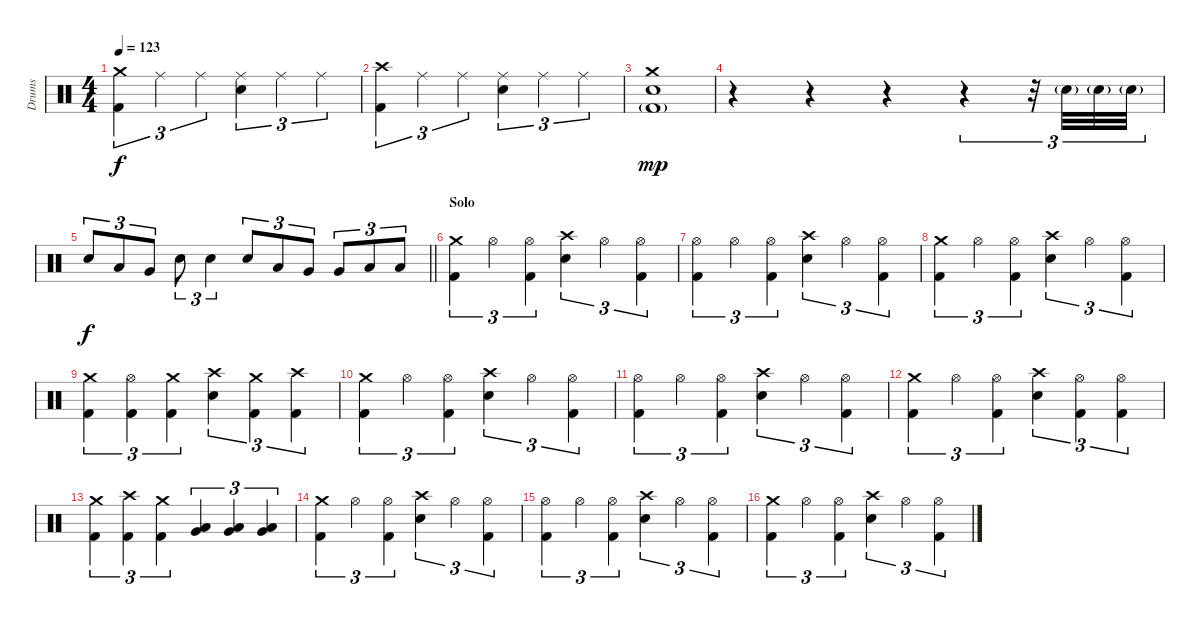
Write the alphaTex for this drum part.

\track ("Drums" "Drums") {instrument percussion}
\staff {score}
\articulation defaults
\ts (4 4)
\tempo 123
\clef neutral
\ks c
("Crash medium (hit)" "Kick (hit) 2").4{tu (3 2) dy f} "Ride (middle)".4{tu (3 2)} "Ride (middle)".4{tu (3 2)} ("Ride (middle)" "Electric Snare (hit)").4{tu (3 2)} "Ride (middle)".4{tu (3 2)} "Ride (middle)".4{tu (3 2)} |
("Crash high (hit)" "Kick (hit) 2").4{tu (3 2)} "Ride (middle)".4{tu (3 2)} "Ride (middle)".4{tu (3 2)} ("Ride (middle)" "Electric Snare (hit)").4{tu (3 2)} "Ride (middle)".4{tu (3 2)} "Ride (middle)".4{tu (3 2)} |
("Crash medium (hit)" "Electric Snare (hit)" "Kick (hit) 2"{g}).1{dy mp} |
r.4 r.4 r.4 r.4{tu (3 2)} r.32{tu (3 2)} "Electric Snare (hit)"{g}.32{tu (3 2)} "Electric Snare (hit)"{g}.32{tu (3 2)} "Electric Snare (hit)"{g}.32{tu (3 2)} |
\barLineRight lightlight "Electric Snare (hit)".8{tu (3 2) dy f} "Low Tom (hit)".8{tu (3 2)} "Very Low Tom (hit)".8{tu (3 2)} "Electric Snare (hit)".8{tu (3 2)} "Electric Snare (hit)".4{tu (3 2)} "Electric Snare (hit)".8{tu (3 2)} "Low Tom (hit)".8{tu (3 2)} "Very Low Tom (hit)".8{tu (3 2)} "Very Low Tom (hit)".8{tu (3 2)} "Low Floor Tom (hit)".8{tu (3 2)} "Low Floor Tom (hit)".8{tu (3 2)}
|
\section ("" "Solo")
("Crash medium (hit)" "Kick (hit) 2").4{tu (3 2)} "Hi-Hat (open)".4{tu (3 2)} ("Hi-Hat (open)" "Kick (hit) 2").4{tu (3 2)} ("Crash high (hit)" "Electric Snare (hit)").4{tu (3 2)} "Hi-Hat (open)".4{tu (3 2)} ("Hi-Hat (open)" "Kick (hit) 2").4{tu (3 2)} |
("Hi-Hat (open)" "Kick (hit) 2").4{tu (3 2)} "Hi-Hat (open)".4{tu (3 2)} ("Hi-Hat (open)" "Kick (hit) 2").4{tu (3 2)} ("Crash high (hit)" "Electric Snare (hit)").4{tu (3 2)} "Hi-Hat (open)".4{tu (3 2)} ("Hi-Hat (open)" "Kick (hit) 2").4{tu (3 2)} |
("Crash medium (hit)" "Kick (hit) 2").4{tu (3 2)} "Hi-Hat (open)".4{tu (3 2)} ("Hi-Hat (open)" "Kick (hit) 2").4{tu (3 2)} ("Crash high (hit)" "Electric Snare (hit)").4{tu (3 2)} "Hi-Hat (open)".4{tu (3 2)} ("Hi-Hat (open)" "Kick (hit) 2").4{tu (3 2)} |
("Crash medium (hit)" "Kick (hit) 2").4{tu (3 2)} ("Hi-Hat (open)" "Kick (hit) 2").4{tu (3 2)} ("Crash medium (hit)" "Kick (hit) 2").4{tu (3 2)} ("Crash high (hit)" "Electric Snare (hit)").4{tu (3 2)} ("Crash medium (hit)" "Kick (hit) 2").4{tu (3 2)} ("Crash high (hit)" "Kick (hit) 2").4{tu (3 2)} |
("Crash medium (hit)" "Kick (hit) 2").4{tu (3 2)} "Hi-Hat (open)".4{tu (3 2)} ("Hi-Hat (open)" "Kick (hit) 2").4{tu (3 2)} ("Crash high (hit)" "Electric Snare (hit)").4{tu (3 2)} "Hi-Hat (open)".4{tu (3 2)} ("Hi-Hat (open)" "Kick (hit) 2").4{tu (3 2)} |
("Hi-Hat (open)" "Kick (hit) 2").4{tu (3 2)} "Hi-Hat (open)".4{tu (3 2)} ("Hi-Hat (open)" "Kick (hit) 2").4{tu (3 2)} ("Crash high (hit)" "Electric Snare (hit)").4{tu (3 2)} "Hi-Hat (open)".4{tu (3 2)} ("Hi-Hat (open)" "Kick (hit) 2").4{tu (3 2)} |
("Crash medium (hit)" "Kick (hit) 2").4{tu (3 2)} "Hi-Hat (open)".4{tu (3 2)} ("Hi-Hat (open)" "Kick (hit) 2").4{tu (3 2)} ("Crash high (hit)" "Electric Snare (hit)").4{tu (3 2)} ("Hi-Hat (open)" "Kick (hit) 2").4{tu (3 2)} ("Hi-Hat (open)" "Kick (hit) 2").4{tu (3 2)} |
("Crash medium (hit)" "Kick (hit) 2").4{tu (3 2)} ("Crash high (hit)" "Kick (hit) 2").4{tu (3 2)} ("Crash medium (hit)" "Kick (hit) 2").4{tu (3 2)} ("Low Tom (hit)" "Very Low Tom (hit)").4{tu (3 2)} ("Low Tom (hit)" "Very Low Tom (hit)").4{tu (3 2)} ("Low Tom (hit)" "Very Low Tom (hit)").4{tu (3 2)} |
("Crash medium (hit)" "Kick (hit) 2").4{tu (3 2)} "Hi-Hat (open)".4{tu (3 2)} ("Hi-Hat (open)" "Kick (hit) 2").4{tu (3 2)} ("Crash high (hit)" "Electric Snare (hit)").4{tu (3 2)} "Hi-Hat (open)".4{tu (3 2)} ("Hi-Hat (open)" "Kick (hit) 2").4{tu (3 2)} |
("Hi-Hat (open)" "Kick (hit) 2").4{tu (3 2)} "Hi-Hat (open)".4{tu (3 2)} ("Hi-Hat (open)" "Kick (hit) 2").4{tu (3 2)} ("Crash high (hit)" "Electric Snare (hit)").4{tu (3 2)} "Hi-Hat (open)".4{tu (3 2)} ("Hi-Hat (open)" "Kick (hit) 2").4{tu (3 2)} |
("Crash medium (hit)" "Kick (hit) 2").4{tu (3 2)} "Hi-Hat (open)".4{tu (3 2)} ("Hi-Hat (open)" "Kick (hit) 2").4{tu (3 2)} ("Crash high (hit)" "Electric Snare (hit)").4{tu (3 2)} "Hi-Hat (open)".4{tu (3 2)} ("Hi-Hat (open)" "Kick (hit) 2").4{tu (3 2)}
